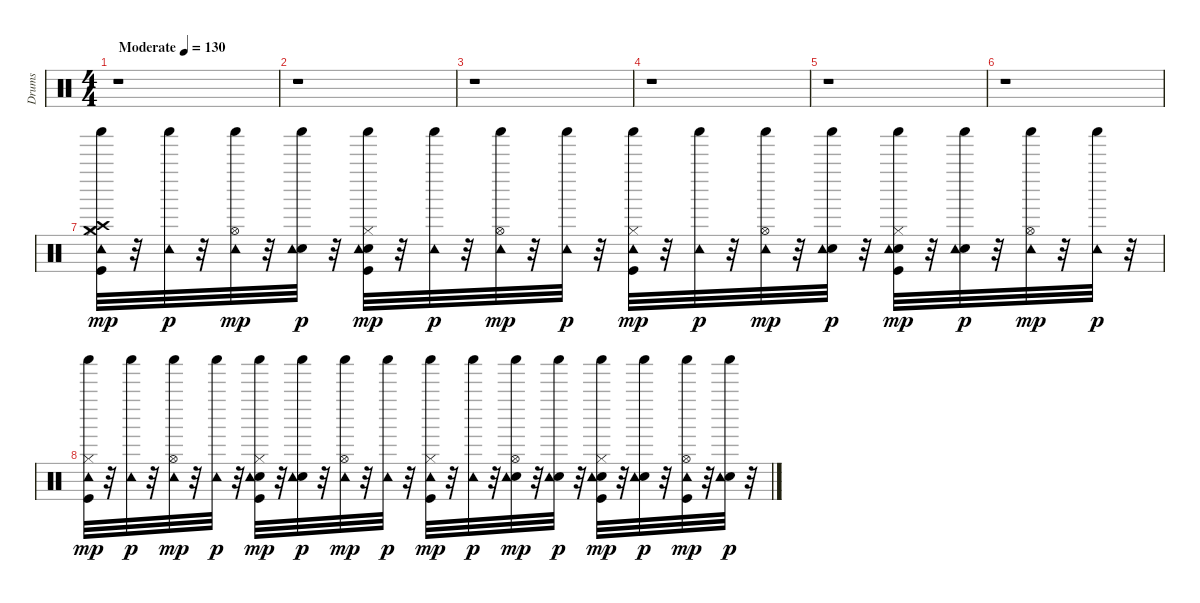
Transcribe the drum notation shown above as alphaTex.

\track ("Drums" "Drums") {instrument percussion}
\staff {score}
\articulation defaults
\ts (4 4)
\tempo (130 "Moderate")
\clef neutral
\ks c
r.1{dy mp} |
r.1 |
r.1 |
r.1 |
r.1 |
r.1 |
("Kick (hit)" "Hi-Hat (closed)" "Crash high (hit)" "Crash medium (hit)" "Tambourine (hit)" "Shaker (hit)").32 r.32 ("Tambourine (hit)" "Shaker (hit)").32{dy p} r.32 ("Tambourine (hit)" "Hi-Hat (open)" "Shaker (hit)").32{dy mp} r.32 ("Electric Snare (hit)" "Tambourine (hit)" "Shaker (hit)").32{dy p} r.32 ("Kick (hit)" "Hi-Hat (closed)" "Hand Clap (hit)" "Tambourine (hit)" "Shaker (hit)").32{dy mp} r.32 ("Tambourine (hit)" "Shaker (hit)").32{dy p} r.32 ("Tambourine (hit)" "Hi-Hat (open)" "Shaker (hit)").32{dy mp} r.32 ("Tambourine (hit)" "Shaker (hit)").32{dy p} r.32 ("Kick (hit)" "Hi-Hat (closed)" "Tambourine (hit)" "Shaker (hit)").32{dy mp} r.32 ("Tambourine (hit)" "Shaker (hit)").32{dy p} r.32 ("Tambourine (hit)" "Hi-Hat (open)" "Shaker (hit)").32{dy mp} r.32 ("Electric Snare (hit)" "Tambourine (hit)" "Shaker (hit)").32{dy p} r.32 ("Kick (hit)" "Hi-Hat (closed)" "Hand Clap (hit)" "Tambourine (hit)" "Shaker (hit)").32{dy mp} r.32 ("Electric Snare (hit)" "Tambourine (hit)" "Shaker (hit)").32{dy p} r.32 ("Tambourine (hit)" "Hi-Hat (open)" "Shaker (hit)").32{dy mp} r.32 ("Tambourine (hit)" "Shaker (hit)").32{dy p} r.32 |
("Kick (hit)" "Hi-Hat (closed)" "Tambourine (hit)" "Shaker (hit)").32{dy mp} r.32 ("Tambourine (hit)" "Shaker (hit)").32{dy p} r.32 ("Tambourine (hit)" "Hi-Hat (open)" "Shaker (hit)").32{dy mp} r.32 ("Tambourine (hit)" "Shaker (hit)").32{dy p} r.32 ("Kick (hit)" "Hi-Hat (closed)" "Hand Clap (hit)" "Tambourine (hit)" "Shaker (hit)").32{dy mp} r.32 ("Electric Snare (hit)" "Tambourine (hit)" "Shaker (hit)").32{dy p} r.32 ("Tambourine (hit)" "Hi-Hat (open)" "Shaker (hit)").32{dy mp} r.32 ("Tambourine (hit)" "Shaker (hit)").32{dy p} r.32 ("Kick (hit)" "Hi-Hat (closed)" "Tambourine (hit)" "Shaker (hit)").32{dy mp} r.32 ("Tambourine (hit)" "Shaker (hit)").32{dy p} r.32 ("Hand Clap (hit)" "Tambourine (hit)" "Hi-Hat (open)" "Shaker (hit)").32{dy mp} r.32 ("Electric Snare (hit)" "Tambourine (hit)" "Shaker (hit)").32{dy p} r.32 ("Kick (hit)" "Hi-Hat (closed)" "Hand Clap (hit)" "Tambourine (hit)" "Shaker (hit)").32{dy mp} r.32 ("Electric Snare (hit)" "Tambourine (hit)" "Shaker (hit)").32{dy p} r.32 ("Kick (hit)" "Tambourine (hit)" "Hi-Hat (open)" "Shaker (hit)").32{dy mp} r.32 ("Electric Snare (hit)" "Tambourine (hit)" "Shaker (hit)").32{dy p} r.32
